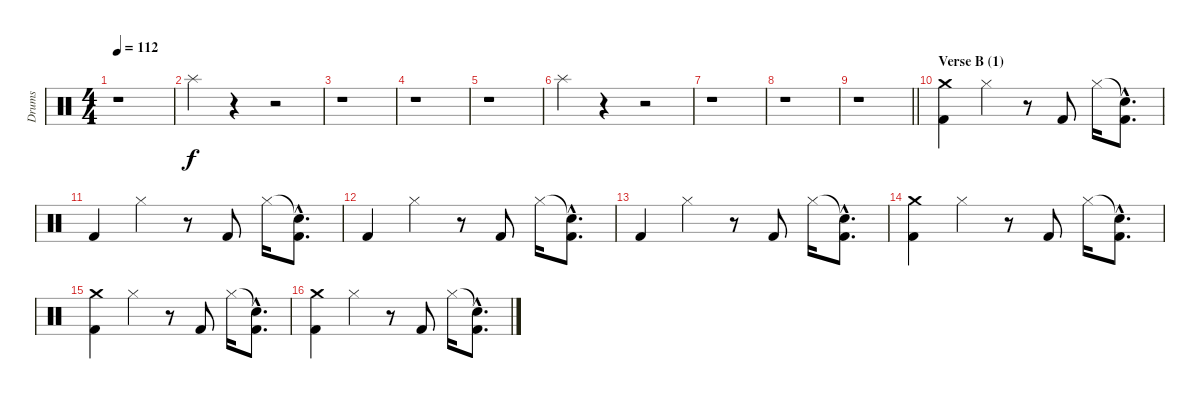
\track ("Drums" "Drums") {instrument percussion}
\staff {score}
\articulation defaults
\ts (4 4)
\tempo 112
\clef neutral
\ks c
r.1{dy f} |
"Splash (hit)".4 r.4 r.2 |
r.1 |
r.1 |
r.1 |
"Splash (hit)".4 r.4 r.2 |
r.1 |
r.1 |
\barLineRight lightlight
r.1 |
\section ("" "Verse B (1)")
("Crash medium (hit)" "Kick (hit) 2").4 "Hi-Hat (closed)".4 r.8 "Kick (hit) 2".8 "Hi-Hat (closed)".16 ("Snare (hit)"{hac t} "Kick (hit) 2"{hac}).8{d} |
"Kick (hit) 2".4 "Hi-Hat (closed)".4 r.8 "Kick (hit) 2".8 "Hi-Hat (closed)".16 ("Snare (hit)"{hac t} "Kick (hit) 2"{hac}).8{d} |
"Kick (hit) 2".4 "Hi-Hat (closed)".4 r.8 "Kick (hit) 2".8 "Hi-Hat (closed)".16 ("Snare (hit)"{hac t} "Kick (hit) 2"{hac}).8{d} |
"Kick (hit) 2".4 "Hi-Hat (closed)".4 r.8 "Kick (hit) 2".8 "Hi-Hat (closed)".16 ("Snare (hit)"{hac t} "Kick (hit) 2"{hac}).8{d} |
("Crash medium (hit)" "Kick (hit) 2").4 "Hi-Hat (closed)".4 r.8 "Kick (hit) 2".8 "Hi-Hat (closed)".16 ("Snare (hit)"{hac t} "Kick (hit) 2"{hac}).8{d} |
("Crash medium (hit)" "Kick (hit) 2").4 "Hi-Hat (closed)".4 r.8 "Kick (hit) 2".8 "Hi-Hat (closed)".16 ("Snare (hit)"{hac t} "Kick (hit) 2"{hac}).8{d} |
("Crash medium (hit)" "Kick (hit) 2").4 "Hi-Hat (closed)".4 r.8 "Kick (hit) 2".8 "Hi-Hat (closed)".16 ("Snare (hit)"{hac t} "Kick (hit) 2"{hac}).8{d}
